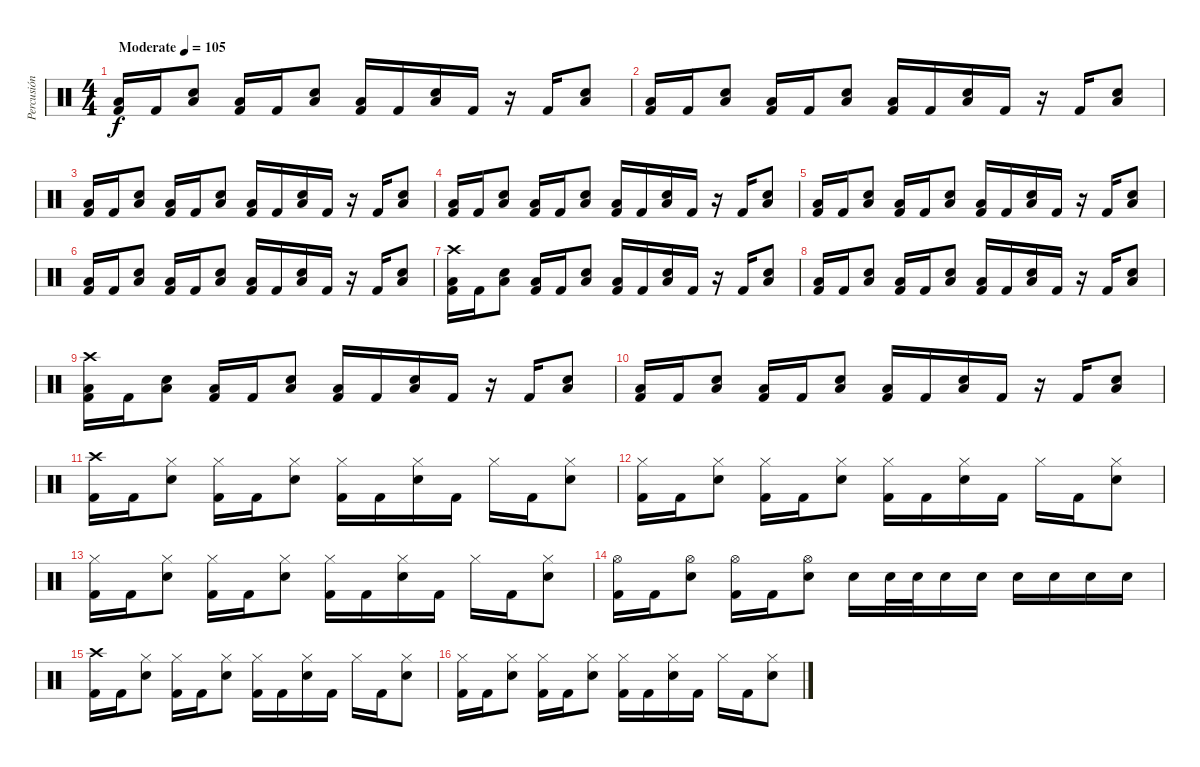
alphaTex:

\track ("Percusión" "Percusión") {instrument percussion}
\staff {score}
\articulation defaults
\ts (4 4)
\tempo (105 "Moderate")
\clef neutral
\ks c
("Low Tom (hit)" "Kick (hit) 2").16{dy f} "Kick (hit) 2".16 ("Low Tom (hit)" "Electric Snare (hit)").8 ("Low Tom (hit)" "Kick (hit) 2").16 "Kick (hit) 2".16 ("Low Tom (hit)" "Electric Snare (hit)").8 ("Low Tom (hit)" "Kick (hit) 2").16 "Kick (hit) 2".16 ("Low Tom (hit)" "Electric Snare (hit)").16 "Kick (hit) 2".16 r.16 "Kick (hit) 2".16 ("Low Tom (hit)" "Electric Snare (hit)").8 |
("Low Tom (hit)" "Kick (hit) 2").16 "Kick (hit) 2".16 ("Low Tom (hit)" "Electric Snare (hit)").8 ("Low Tom (hit)" "Kick (hit) 2").16 "Kick (hit) 2".16 ("Low Tom (hit)" "Electric Snare (hit)").8 ("Low Tom (hit)" "Kick (hit) 2").16 "Kick (hit) 2".16 ("Low Tom (hit)" "Electric Snare (hit)").16 "Kick (hit) 2".16 r.16 "Kick (hit) 2".16 ("Low Tom (hit)" "Electric Snare (hit)").8 |
("Low Tom (hit)" "Kick (hit) 2").16 "Kick (hit) 2".16 ("Low Tom (hit)" "Electric Snare (hit)").8 ("Low Tom (hit)" "Kick (hit) 2").16 "Kick (hit) 2".16 ("Low Tom (hit)" "Electric Snare (hit)").8 ("Low Tom (hit)" "Kick (hit) 2").16 "Kick (hit) 2".16 ("Low Tom (hit)" "Electric Snare (hit)").16 "Kick (hit) 2".16 r.16 "Kick (hit) 2".16 ("Low Tom (hit)" "Electric Snare (hit)").8 |
("Low Tom (hit)" "Kick (hit) 2").16 "Kick (hit) 2".16 ("Low Tom (hit)" "Electric Snare (hit)").8 ("Low Tom (hit)" "Kick (hit) 2").16 "Kick (hit) 2".16 ("Low Tom (hit)" "Electric Snare (hit)").8 ("Low Tom (hit)" "Kick (hit) 2").16 "Kick (hit) 2".16 ("Low Tom (hit)" "Electric Snare (hit)").16 "Kick (hit) 2".16 r.16 "Kick (hit) 2".16 ("Low Tom (hit)" "Electric Snare (hit)").8 |
("Low Tom (hit)" "Kick (hit) 2").16 "Kick (hit) 2".16 ("Low Tom (hit)" "Electric Snare (hit)").8 ("Low Tom (hit)" "Kick (hit) 2").16 "Kick (hit) 2".16 ("Low Tom (hit)" "Electric Snare (hit)").8 ("Low Tom (hit)" "Kick (hit) 2").16 "Kick (hit) 2".16 ("Low Tom (hit)" "Electric Snare (hit)").16 "Kick (hit) 2".16 r.16 "Kick (hit) 2".16 ("Low Tom (hit)" "Electric Snare (hit)").8 |
("Low Tom (hit)" "Kick (hit) 2").16 "Kick (hit) 2".16 ("Low Tom (hit)" "Electric Snare (hit)").8 ("Low Tom (hit)" "Kick (hit) 2").16 "Kick (hit) 2".16 ("Low Tom (hit)" "Electric Snare (hit)").8 ("Low Tom (hit)" "Kick (hit) 2").16 "Kick (hit) 2".16 ("Low Tom (hit)" "Electric Snare (hit)").16 "Kick (hit) 2".16 r.16 "Kick (hit) 2".16 ("Low Tom (hit)" "Electric Snare (hit)").8 |
("Crash high (hit)" "Low Tom (hit)" "Kick (hit) 2").16 "Kick (hit) 2".16 ("Low Tom (hit)" "Electric Snare (hit)").8 ("Low Tom (hit)" "Kick (hit) 2").16 "Kick (hit) 2".16 ("Low Tom (hit)" "Electric Snare (hit)").8 ("Low Tom (hit)" "Kick (hit) 2").16 "Kick (hit) 2".16 ("Low Tom (hit)" "Electric Snare (hit)").16 "Kick (hit) 2".16 r.16 "Kick (hit) 2".16 ("Low Tom (hit)" "Electric Snare (hit)").8 |
("Low Tom (hit)" "Kick (hit) 2").16 "Kick (hit) 2".16 ("Low Tom (hit)" "Electric Snare (hit)").8 ("Low Tom (hit)" "Kick (hit) 2").16 "Kick (hit) 2".16 ("Low Tom (hit)" "Electric Snare (hit)").8 ("Low Tom (hit)" "Kick (hit) 2").16 "Kick (hit) 2".16 ("Low Tom (hit)" "Electric Snare (hit)").16 "Kick (hit) 2".16 r.16 "Kick (hit) 2".16 ("Low Tom (hit)" "Electric Snare (hit)").8 |
("Crash high (hit)" "Low Tom (hit)" "Kick (hit) 2").16 "Kick (hit) 2".16 ("Low Tom (hit)" "Electric Snare (hit)").8 ("Low Tom (hit)" "Kick (hit) 2").16 "Kick (hit) 2".16 ("Low Tom (hit)" "Electric Snare (hit)").8 ("Low Tom (hit)" "Kick (hit) 2").16 "Kick (hit) 2".16 ("Low Tom (hit)" "Electric Snare (hit)").16 "Kick (hit) 2".16 r.16 "Kick (hit) 2".16 ("Low Tom (hit)" "Electric Snare (hit)").8 |
("Low Tom (hit)" "Kick (hit) 2").16 "Kick (hit) 2".16 ("Low Tom (hit)" "Electric Snare (hit)").8 ("Low Tom (hit)" "Kick (hit) 2").16 "Kick (hit) 2".16 ("Low Tom (hit)" "Electric Snare (hit)").8 ("Low Tom (hit)" "Kick (hit) 2").16 "Kick (hit) 2".16 ("Low Tom (hit)" "Electric Snare (hit)").16 "Kick (hit) 2".16 r.16 "Kick (hit) 2".16 ("Low Tom (hit)" "Electric Snare (hit)").8 |
("Crash high (hit)" "Kick (hit) 2").16 "Kick (hit) 2".16 ("Hi-Hat (closed)" "Electric Snare (hit)").8 ("Hi-Hat (closed)" "Kick (hit) 2").16 "Kick (hit) 2".16 ("Hi-Hat (closed)" "Electric Snare (hit)").8 ("Hi-Hat (closed)" "Kick (hit) 2").16 "Kick (hit) 2".16 ("Hi-Hat (closed)" "Electric Snare (hit)").16 "Kick (hit) 2".16 "Hi-Hat (closed)".16 "Kick (hit) 2".16 ("Hi-Hat (closed)" "Electric Snare (hit)").8 |
("Hi-Hat (closed)" "Kick (hit) 2").16 "Kick (hit) 2".16 ("Hi-Hat (closed)" "Electric Snare (hit)").8 ("Hi-Hat (closed)" "Kick (hit) 2").16 "Kick (hit) 2".16 ("Hi-Hat (closed)" "Electric Snare (hit)").8 ("Hi-Hat (closed)" "Kick (hit) 2").16 "Kick (hit) 2".16 ("Hi-Hat (closed)" "Electric Snare (hit)").16 "Kick (hit) 2".16 "Hi-Hat (closed)".16 "Kick (hit) 2".16 ("Hi-Hat (closed)" "Electric Snare (hit)").8 |
("Hi-Hat (closed)" "Kick (hit) 2").16 "Kick (hit) 2".16 ("Hi-Hat (closed)" "Electric Snare (hit)").8 ("Hi-Hat (closed)" "Kick (hit) 2").16 "Kick (hit) 2".16 ("Hi-Hat (closed)" "Electric Snare (hit)").8 ("Hi-Hat (closed)" "Kick (hit) 2").16 "Kick (hit) 2".16 ("Hi-Hat (closed)" "Electric Snare (hit)").16 "Kick (hit) 2".16 "Hi-Hat (closed)".16 "Kick (hit) 2".16 ("Hi-Hat (closed)" "Electric Snare (hit)").8 |
("Hi-Hat (open)" "Kick (hit) 2").16 "Kick (hit) 2".16 ("Hi-Hat (open)" "Electric Snare (hit)").8 ("Hi-Hat (open)" "Kick (hit) 2").16 "Kick (hit) 2".16 ("Hi-Hat (open)" "Electric Snare (hit)").8 "Electric Snare (hit)".16 "Electric Snare (hit)".32 "Electric Snare (hit)".32 "Electric Snare (hit)".16 "Electric Snare (hit)".16 "Electric Snare (hit)".16 "Electric Snare (hit)".16 "Electric Snare (hit)".16 "Electric Snare (hit)".16 |
("Crash high (hit)" "Kick (hit) 2").16 "Kick (hit) 2".16 ("Hi-Hat (closed)" "Electric Snare (hit)").8 ("Hi-Hat (closed)" "Kick (hit) 2").16 "Kick (hit) 2".16 ("Hi-Hat (closed)" "Electric Snare (hit)").8 ("Hi-Hat (closed)" "Kick (hit) 2").16 "Kick (hit) 2".16 ("Hi-Hat (closed)" "Electric Snare (hit)").16 "Kick (hit) 2".16 "Hi-Hat (closed)".16 "Kick (hit) 2".16 ("Hi-Hat (closed)" "Electric Snare (hit)").8 |
("Hi-Hat (closed)" "Kick (hit) 2").16 "Kick (hit) 2".16 ("Hi-Hat (closed)" "Electric Snare (hit)").8 ("Hi-Hat (closed)" "Kick (hit) 2").16 "Kick (hit) 2".16 ("Hi-Hat (closed)" "Electric Snare (hit)").8 ("Hi-Hat (closed)" "Kick (hit) 2").16 "Kick (hit) 2".16 ("Hi-Hat (closed)" "Electric Snare (hit)").16 "Kick (hit) 2".16 "Hi-Hat (closed)".16 "Kick (hit) 2".16 ("Hi-Hat (closed)" "Electric Snare (hit)").8
